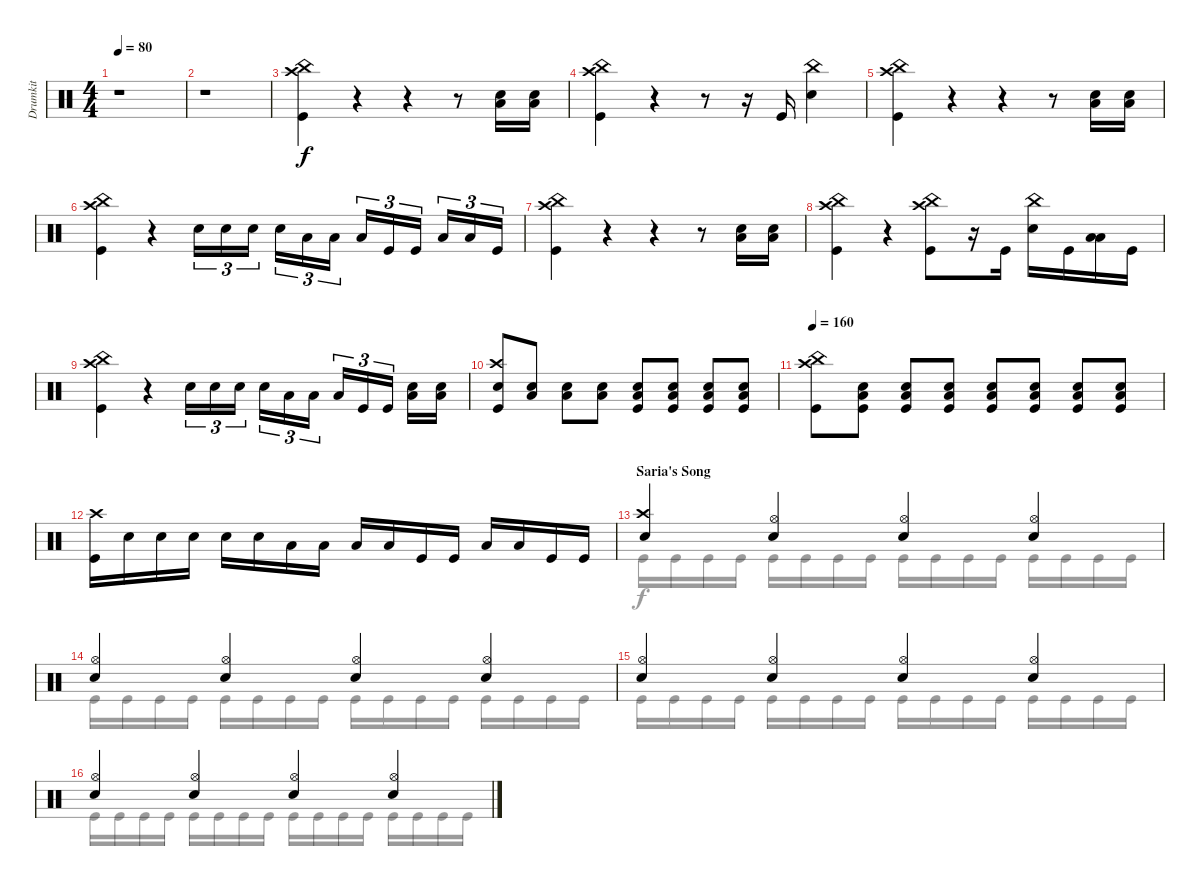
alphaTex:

\track ("Drumkit" "Drumkit") {instrument percussion}
\staff {score}
\articulation defaults
\voice
\ts (4 4)
\tempo 80
\clef neutral
\ks c
r.1{dy f} |
r.1 |
("Kick (hit)" "Crash high (hit)" "China (hit)").4 r.4 r.4 r.8 ("Snare (hit) 2" "Low Floor Tom (hit)").16 ("Snare (hit) 2" "Low Floor Tom (hit)").16 |
("Kick (hit)" "Crash high (hit)" "China (hit)").4 r.4 r.8 r.16 "Kick (hit)".16 ("Snare (hit) 2" "China (hit)").4 |
("Kick (hit)" "Crash high (hit)" "China (hit)").4 r.4 r.4 r.8 ("Snare (hit) 2" "Low Floor Tom (hit)").16 ("Snare (hit) 2" "Low Floor Tom (hit)").16 |
("Kick (hit)" "Crash high (hit)" "China (hit)").4 r.4 "Snare (hit) 2".16{tu (3 2)} "Snare (hit) 2".16{tu (3 2)} "Snare (hit) 2".16{tu (3 2)} "Snare (hit) 2".16{tu (3 2)} "Low Tom (hit)".16{tu (3 2)} "Low Tom (hit)".16{tu (3 2)} "Low Tom (hit)".16{tu (3 2)} "Kick (hit)".16{tu (3 2)} "Kick (hit)".16{tu (3 2)} "Low Floor Tom (hit)".16{tu (3 2)} "Low Floor Tom (hit)".16{tu (3 2)} "Kick (hit)".16{tu (3 2)} |
("Kick (hit)" "Crash high (hit)" "China (hit)").4 r.4 r.4 r.8 ("Snare (hit) 2" "Low Floor Tom (hit)").16 ("Snare (hit) 2" "Low Floor Tom (hit)").16 |
("Kick (hit)" "Crash high (hit)" "China (hit)").4 r.4 ("Kick (hit)" "Crash high (hit)" "China (hit)").8 r.16 "Kick (hit)".16 ("Snare (hit) 2" "China (hit)").16 "Kick (hit)".16 ("Low Floor Tom (hit)" "Low Tom (hit)").16 "Kick (hit)".16 |
("Kick (hit)" "Crash high (hit)" "China (hit)").4 r.4 "Snare (hit) 2".16{tu (3 2)} "Snare (hit) 2".16{tu (3 2)} "Snare (hit) 2".16{tu (3 2)} "Snare (hit) 2".16{tu (3 2)} "Low Tom (hit)".16{tu (3 2)} "Low Tom (hit)".16{tu (3 2)} "Low Tom (hit)".16{tu (3 2)} "Kick (hit)".16{tu (3 2)} "Kick (hit)".16{tu (3 2)} ("Snare (hit) 2" "Low Floor Tom (hit)").16 ("Snare (hit) 2" "Low Floor Tom (hit)").16 |
("Kick (hit)" "Snare (hit) 2" "Crash high (hit)").8 ("Snare (hit) 2" "Low Floor Tom (hit)").8 ("Snare (hit) 2" "Low Floor Tom (hit)").8 ("Snare (hit) 2" "Low Floor Tom (hit)").8 ("Snare (hit) 2" "Low Floor Tom (hit)" "Kick (hit)").8 ("Snare (hit) 2" "Low Floor Tom (hit)" "Kick (hit)").8 ("Snare (hit) 2" "Low Floor Tom (hit)" "Kick (hit)").8 ("Snare (hit) 2" "Low Floor Tom (hit)" "Kick (hit)").8 |
\tempo 160
("Kick (hit)" "Crash high (hit)" "China (hit)").8 ("Snare (hit) 2" "Kick (hit)" "Low Floor Tom (hit)").8 ("Snare (hit) 2" "Kick (hit)" "Low Floor Tom (hit)").8 ("Snare (hit) 2" "Kick (hit)" "Low Floor Tom (hit)").8 ("Snare (hit) 2" "Kick (hit)" "Low Floor Tom (hit)").8 ("Snare (hit) 2" "Kick (hit)" "Low Floor Tom (hit)").8 ("Snare (hit) 2" "Kick (hit)" "Low Floor Tom (hit)").8 ("Snare (hit) 2" "Kick (hit)" "Low Floor Tom (hit)").8 |
("Kick (hit)" "Crash high (hit)").16 "Snare (hit) 2".16 "Snare (hit) 2".16 "Snare (hit) 2".16 "Snare (hit) 2".16 "Snare (hit) 2".16 "Low Tom (hit)".16 "Low Tom (hit)".16 "Low Tom (hit)".16 "Low Tom (hit)".16 "Kick (hit)".16 "Kick (hit)".16 "Low Floor Tom (hit)".16 "Low Floor Tom (hit)".16 "Kick (hit)".16 "Kick (hit)".16 |
\section ("" "Saria's Song")
("Snare (hit) 2" "Crash high (hit)").4 ("Snare (hit) 2" "Hi-Hat (open)").4 ("Snare (hit) 2" "Hi-Hat (open)").4 ("Snare (hit) 2" "Hi-Hat (open)").4 |
("Snare (hit) 2" "Hi-Hat (open)").4 ("Snare (hit) 2" "Hi-Hat (open)").4 ("Snare (hit) 2" "Hi-Hat (open)").4 ("Snare (hit) 2" "Hi-Hat (open)").4 |
("Snare (hit) 2" "Hi-Hat (open)").4 ("Snare (hit) 2" "Hi-Hat (open)").4 ("Snare (hit) 2" "Hi-Hat (open)").4 ("Snare (hit) 2" "Hi-Hat (open)").4 |
("Snare (hit) 2" "Hi-Hat (open)").4 ("Snare (hit) 2" "Hi-Hat (open)").4 ("Snare (hit) 2" "Hi-Hat (open)").4 ("Snare (hit) 2" "Hi-Hat (open)").4
\voice
\clef neutral
\ottava regular
\simile none
\ks c
|
|
|
|
|
|
|
|
|
|
|
|
"Kick (hit)".16 "Kick (hit)".16 "Kick (hit)".16 "Kick (hit)".16 "Kick (hit)".16 "Kick (hit)".16 "Kick (hit)".16 "Kick (hit)".16 "Kick (hit)".16 "Kick (hit)".16 "Kick (hit)".16 "Kick (hit)".16 "Kick (hit)".16 "Kick (hit)".16 "Kick (hit)".16 "Kick (hit)".16 |
"Kick (hit)".16 "Kick (hit)".16 "Kick (hit)".16 "Kick (hit)".16 "Kick (hit)".16 "Kick (hit)".16 "Kick (hit)".16 "Kick (hit)".16 "Kick (hit)".16 "Kick (hit)".16 "Kick (hit)".16 "Kick (hit)".16 "Kick (hit)".16 "Kick (hit)".16 "Kick (hit)".16 "Kick (hit)".16 |
"Kick (hit)".16 "Kick (hit)".16 "Kick (hit)".16 "Kick (hit)".16 "Kick (hit)".16 "Kick (hit)".16 "Kick (hit)".16 "Kick (hit)".16 "Kick (hit)".16 "Kick (hit)".16 "Kick (hit)".16 "Kick (hit)".16 "Kick (hit)".16 "Kick (hit)".16 "Kick (hit)".16 "Kick (hit)".16 |
"Kick (hit)".16 "Kick (hit)".16 "Kick (hit)".16 "Kick (hit)".16 "Kick (hit)".16 "Kick (hit)".16 "Kick (hit)".16 "Kick (hit)".16 "Kick (hit)".16 "Kick (hit)".16 "Kick (hit)".16 "Kick (hit)".16 "Kick (hit)".16 "Kick (hit)".16 "Kick (hit)".16 "Kick (hit)".16
